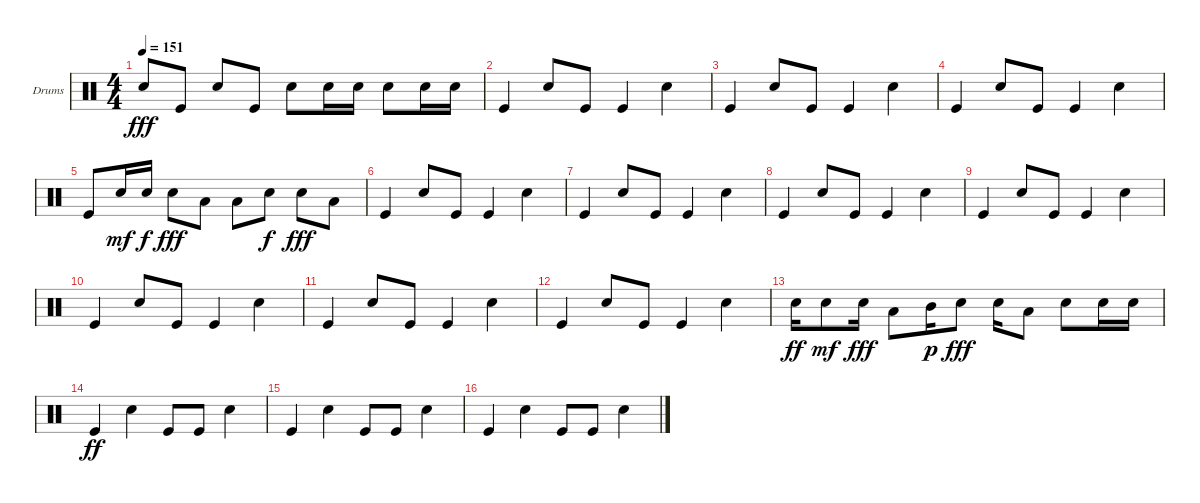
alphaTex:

\defaultSystemsLayout 4
\bracketExtendMode groupsimilarinstruments
\firstSystemTrackNameOrientation horizontal
\otherSystemsTrackNameOrientation horizontal
\track ("Helders" "Drums") {instrument percussion}
\staff {score}
\articulation defaults
\ts (4 4)
\tempo 151
\clef neutral
\ks c "Snare (hit) 2".8{dy fff} "Kick (hit)".8 "Snare (hit) 2".8 "Kick (hit)".8 "Snare (hit) 2".8 "Snare (hit) 2".16 "Snare (hit) 2".16 "Snare (hit) 2".8 "Snare (hit) 2".16 "Snare (hit) 2".16
|
"Kick (hit)".4 "Snare (hit) 2".8 "Kick (hit)".8 "Kick (hit)".4 "Snare (hit) 2".4 |
"Kick (hit)".4 "Snare (hit) 2".8 "Kick (hit)".8 "Kick (hit)".4 "Snare (hit) 2".4 |
"Kick (hit)".4 "Snare (hit) 2".8 "Kick (hit)".8 "Kick (hit)".4 "Snare (hit) 2".4 |
"Kick (hit)".8 "Snare (hit) 2".16{dy mf} "Snare (hit) 2".16{dy f} "Snare (hit) 2".8{dy fff} "Low Tom (hit)".8 "Low Tom (hit)".8 "Snare (hit) 2".8{dy f} "Snare (hit) 2".8{dy fff} "Low Tom (hit)".8 |
"Kick (hit)".4 "Snare (hit) 2".8 "Kick (hit)".8 "Kick (hit)".4 "Snare (hit) 2".4 |
"Kick (hit)".4 "Snare (hit) 2".8 "Kick (hit)".8 "Kick (hit)".4 "Snare (hit) 2".4 |
"Kick (hit)".4 "Snare (hit) 2".8 "Kick (hit)".8 "Kick (hit)".4 "Snare (hit) 2".4 |
"Kick (hit)".4 "Snare (hit) 2".8 "Kick (hit)".8 "Kick (hit)".4 "Snare (hit) 2".4 |
"Kick (hit)".4 "Snare (hit) 2".8 "Kick (hit)".8 "Kick (hit)".4 "Snare (hit) 2".4 |
"Kick (hit)".4 "Snare (hit) 2".8 "Kick (hit)".8 "Kick (hit)".4 "Snare (hit) 2".4 |
"Kick (hit)".4 "Snare (hit) 2".8 "Kick (hit)".8 "Kick (hit)".4 "Snare (hit) 2".4 |
"Snare (hit) 2".16{dy ff} "Snare (hit) 2".8{dy mf} "Snare (hit) 2".16{dy fff} "Low Tom (hit)".8 "Mid Tom (hit)".16{dy p} "Snare (hit) 2".8{dy fff} "Snare (hit) 2".16 "Low Tom (hit)".8 "Snare (hit) 2".8 "Snare (hit) 2".16 "Snare (hit) 2".16 |
"Kick (hit)".4{dy ff} "Snare (hit) 2".4 "Kick (hit)".8 "Kick (hit)".8 "Snare (hit) 2".4 |
"Kick (hit)".4 "Snare (hit) 2".4 "Kick (hit)".8 "Kick (hit)".8 "Snare (hit) 2".4 |
"Kick (hit)".4 "Snare (hit) 2".4 "Kick (hit)".8 "Kick (hit)".8 "Snare (hit) 2".4
